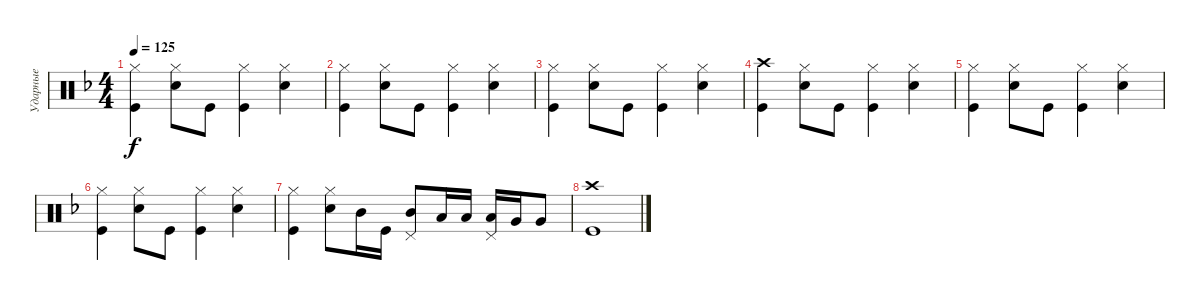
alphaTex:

\track ("Ударные" "Ударные") {instrument percussion}
\staff {score}
\articulation defaults
\ts (4 4)
\tempo 125
\clef neutral
\ks dminor
("Hi-Hat (closed)" "Kick (hit)").4{dy f} ("Hi-Hat (closed)" "Snare (hit) 2").8 "Kick (hit)".8 ("Hi-Hat (closed)" "Kick (hit)").4 ("Hi-Hat (closed)" "Snare (hit) 2").4 |
("Hi-Hat (closed)" "Kick (hit)").4 ("Hi-Hat (closed)" "Snare (hit) 2").8 "Kick (hit)".8 ("Hi-Hat (closed)" "Kick (hit)").4 ("Hi-Hat (closed)" "Snare (hit) 2").4 |
("Hi-Hat (closed)" "Kick (hit)").4 ("Hi-Hat (closed)" "Snare (hit) 2").8 "Kick (hit)".8 ("Hi-Hat (closed)" "Kick (hit)").4 ("Hi-Hat (closed)" "Snare (hit) 2").4 |
("Kick (hit)" "Crash high (hit)").4 ("Hi-Hat (closed)" "Snare (hit) 2").8 "Kick (hit)".8 ("Hi-Hat (closed)" "Kick (hit)").4 ("Hi-Hat (closed)" "Snare (hit) 2").4 |
("Hi-Hat (closed)" "Kick (hit)").4 ("Hi-Hat (closed)" "Snare (hit) 2").8 "Kick (hit)".8 ("Hi-Hat (closed)" "Kick (hit)").4 ("Hi-Hat (closed)" "Snare (hit) 2").4 |
("Hi-Hat (closed)" "Kick (hit)").4 ("Hi-Hat (closed)" "Snare (hit) 2").8 "Kick (hit)".8 ("Hi-Hat (closed)" "Kick (hit)").4 ("Hi-Hat (closed)" "Snare (hit) 2").4 |
("Hi-Hat (closed)" "Kick (hit)").4 ("Hi-Hat (closed)" "Snare (hit) 2").8 "Mid Tom (hit)".16 "Kick (hit)".16 ("Mid Tom (hit)" "Pedal Hi-Hat (hit)").8 "Low Tom (hit)".16 "Low Tom (hit)".16 ("Low Tom (hit)" "Pedal Hi-Hat (hit)").16 "Very Low Tom (hit)".16 "Very Low Tom (hit)".8 |
("Kick (hit)" "Crash high (hit)").1
